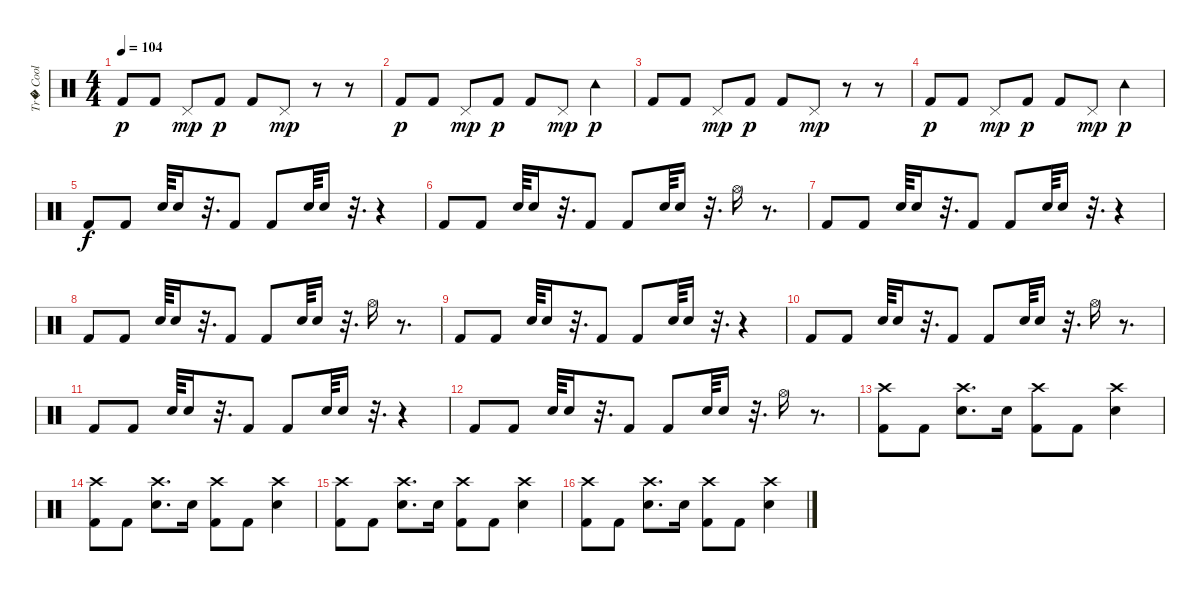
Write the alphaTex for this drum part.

\track ("Tr� Cool" "Tr� Cool") {instrument percussion}
\staff {score}
\articulation defaults
\ts (4 4)
\tempo 104
\clef neutral
\ks c "Kick (hit) 2".8{dy p} "Kick (hit) 2".8 "Pedal Hi-Hat (hit)".8{dy mp} "Kick (hit) 2".8{dy p} "Kick (hit) 2".8 "Pedal Hi-Hat (hit)".8{dy mp}
r.8 r.8 |
"Kick (hit) 2".8{dy p} "Kick (hit) 2".8 "Pedal Hi-Hat (hit)".8{dy mp} "Kick (hit) 2".8{dy p} "Kick (hit) 2".8 "Pedal Hi-Hat (hit)".8{dy mp} "Tambourine (hit)".4{dy p} |
"Kick (hit) 2".8 "Kick (hit) 2".8 "Pedal Hi-Hat (hit)".8{dy mp} "Kick (hit) 2".8{dy p} "Kick (hit) 2".8 "Pedal Hi-Hat (hit)".8{dy mp} r.8 r.8 |
"Kick (hit) 2".8{dy p} "Kick (hit) 2".8 "Pedal Hi-Hat (hit)".8{dy mp} "Kick (hit) 2".8{dy p} "Kick (hit) 2".8 "Pedal Hi-Hat (hit)".8{dy mp} "Tambourine (hit)".4{dy p} |
"Kick (hit) 2".8{dy f volume 13} "Kick (hit) 2".8 "Electric Snare (hit)".64 "Electric Snare (hit)".16 r.32{d} "Kick (hit) 2".8 "Kick (hit) 2".8 "Electric Snare (hit)".64 "Electric Snare (hit)".16 r.32{d} r.4 |
"Kick (hit) 2".8{volume 13} "Kick (hit) 2".8 "Electric Snare (hit)".64 "Electric Snare (hit)".16 r.32{d} "Kick (hit) 2".8 "Kick (hit) 2".8 "Electric Snare (hit)".64 "Electric Snare (hit)".16 r.32{d} "Hi-Hat (open)".16 r.8{d} |
"Kick (hit) 2".8{volume 13} "Kick (hit) 2".8 "Electric Snare (hit)".64 "Electric Snare (hit)".16 r.32{d} "Kick (hit) 2".8 "Kick (hit) 2".8 "Electric Snare (hit)".64 "Electric Snare (hit)".16 r.32{d} r.4 |
"Kick (hit) 2".8{volume 13} "Kick (hit) 2".8 "Electric Snare (hit)".64 "Electric Snare (hit)".16 r.32{d} "Kick (hit) 2".8 "Kick (hit) 2".8 "Electric Snare (hit)".64 "Electric Snare (hit)".16 r.32{d} "Hi-Hat (open)".16 r.8{d} |
"Kick (hit) 2".8{volume 13} "Kick (hit) 2".8 "Electric Snare (hit)".64 "Electric Snare (hit)".16 r.32{d} "Kick (hit) 2".8 "Kick (hit) 2".8 "Electric Snare (hit)".64 "Electric Snare (hit)".16 r.32{d} r.4 |
"Kick (hit) 2".8{volume 13} "Kick (hit) 2".8 "Electric Snare (hit)".64 "Electric Snare (hit)".16 r.32{d} "Kick (hit) 2".8 "Kick (hit) 2".8 "Electric Snare (hit)".64 "Electric Snare (hit)".16 r.32{d} "Hi-Hat (open)".16 r.8{d} |
"Kick (hit) 2".8{volume 13} "Kick (hit) 2".8 "Electric Snare (hit)".64 "Electric Snare (hit)".16 r.32{d} "Kick (hit) 2".8 "Kick (hit) 2".8 "Electric Snare (hit)".64 "Electric Snare (hit)".16 r.32{d} r.4 |
"Kick (hit) 2".8{volume 13} "Kick (hit) 2".8 "Electric Snare (hit)".64 "Electric Snare (hit)".16 r.32{d} "Kick (hit) 2".8 "Kick (hit) 2".8 "Electric Snare (hit)".64 "Electric Snare (hit)".16 r.32{d} "Hi-Hat (open)".16 r.8{d} |
("Crash high (hit)" "Kick (hit) 2").8 "Kick (hit) 2".8 ("Crash high (hit)" "Electric Snare (hit)").8{d} "Electric Snare (hit)".16 ("Crash high (hit)" "Kick (hit) 2").8 "Kick (hit) 2".8 ("Crash high (hit)" "Electric Snare (hit)").4 |
("Crash high (hit)" "Kick (hit) 2").8 "Kick (hit) 2".8 ("Crash high (hit)" "Electric Snare (hit)").8{d} "Electric Snare (hit)".16 ("Crash high (hit)" "Kick (hit) 2").8 "Kick (hit) 2".8 ("Crash high (hit)" "Electric Snare (hit)").4 |
("Crash high (hit)" "Kick (hit) 2").8 "Kick (hit) 2".8 ("Crash high (hit)" "Electric Snare (hit)").8{d} "Electric Snare (hit)".16 ("Crash high (hit)" "Kick (hit) 2").8 "Kick (hit) 2".8 ("Crash high (hit)" "Electric Snare (hit)").4 |
("Crash high (hit)" "Kick (hit) 2").8 "Kick (hit) 2".8 ("Crash high (hit)" "Electric Snare (hit)").8{d} "Electric Snare (hit)".16 ("Crash high (hit)" "Kick (hit) 2").8 "Kick (hit) 2".8 ("Crash high (hit)" "Electric Snare (hit)").4
